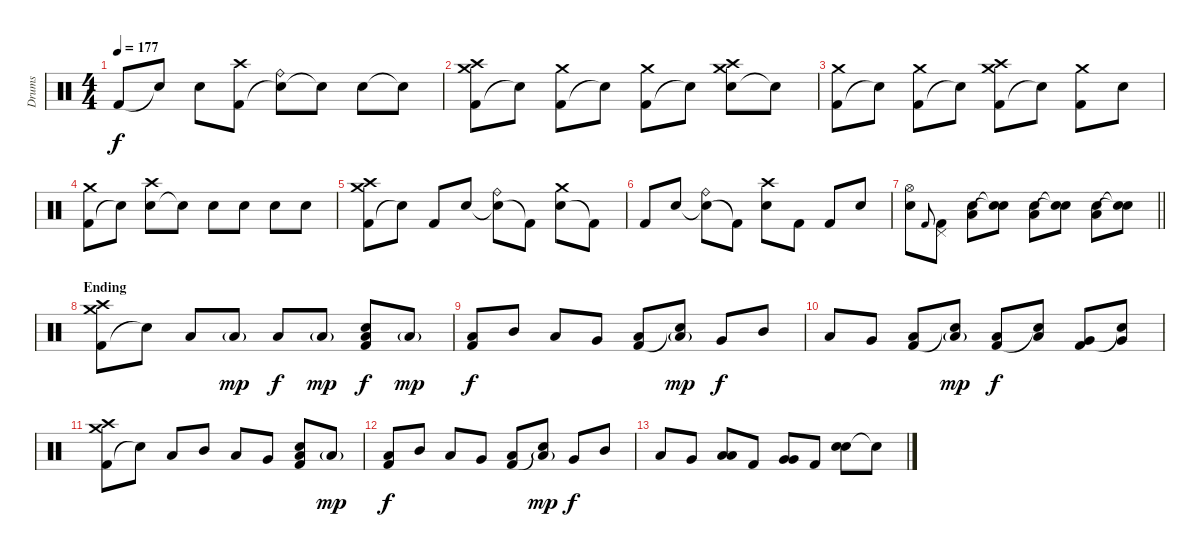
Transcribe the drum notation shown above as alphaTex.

\track ("Drums" "Drums") {instrument percussion}
\staff {score}
\articulation defaults
\ts (4 4)
\tempo 177
\clef neutral
\ks c "Kick (hit) 2"{t}.8{dy f} "Electric Snare (hit)"{t}.8 "Electric Snare (hit)".8
("Kick (hit) 2" "Crash high (hit)").8 ("Snare (hit)"{t} "Ride (bell)").8 "Snare (hit)"{t}.8 "Electric Snare (hit)".8 "Snare (hit)"{t}.8 |
("Kick (hit) 2" "Crash medium (hit)" "Crash high (hit)").8 "Snare (hit)"{t}.8 ("Kick (hit) 2" "Crash medium (hit)").8 "Snare (hit)"{t}.8 ("Kick (hit) 2" "Crash medium (hit)").8 "Snare (hit)"{t}.8 ("Electric Snare (hit)" "Crash medium (hit)" "Crash high (hit)").8 "Snare (hit)"{t}.8 |
("Kick (hit) 2" "Crash medium (hit)").8 "Snare (hit)"{t}.8 ("Kick (hit) 2" "Crash medium (hit)").8 "Snare (hit)"{t}.8 ("Kick (hit) 2" "Crash medium (hit)" "Crash high (hit)").8 "Snare (hit)"{t}.8 ("Kick (hit) 2" "Crash medium (hit)").8 "Electric Snare (hit)".8 |
("Kick (hit) 2" "Crash medium (hit)").8 "Snare (hit)"{t}.8 ("Electric Snare (hit)" "Crash high (hit)").8 "Snare (hit)"{t}.8 "Electric Snare (hit)".8 "Electric Snare (hit)".8 "Electric Snare (hit)".8 "Electric Snare (hit)".8 |
("Kick (hit) 2" "Crash medium (hit)" "Crash high (hit)").8 "Snare (hit)"{t}.8 "Kick (hit) 2".8 "Electric Snare (hit)".8 ("Snare (hit)"{t} "Ride (bell)").8 "Kick (hit) 2"{t}.8 ("Electric Snare (hit)" "Crash medium (hit)").8 "Kick (hit) 2"{t}.8 |
"Kick (hit) 2".8 "Electric Snare (hit)".8 ("Snare (hit)"{t} "Ride (bell)").8 "Kick (hit) 2"{t}.8 ("Electric Snare (hit)" "Crash high (hit)").8 "Kick (hit) 2".8 "Kick (hit) 2".8 "Electric Snare (hit)".8 |
\barLineRight lightlight
("Electric Snare (hit)" "Hi-Hat (open)").8 "Kick (hit) 2".8{gr onbeat} ("Kick (hit) 2" "Pedal Hi-Hat (hit)").8 ("Electric Snare (hit)" "Low Floor Tom (hit)").8 ("Snare (hit)"{t} "Snare (hit)"{t}).8 ("Electric Snare (hit)" "Low Floor Tom (hit)").8 ("Snare (hit)"{t} "Snare (hit)"{t}).8 ("Electric Snare (hit)" "Low Floor Tom (hit)").8 ("Snare (hit)"{t} "Snare (hit)"{t}).8 |
\section ("" "Ending")
("Kick (hit) 2" "Crash medium (hit)" "Crash high (hit)").8 "Snare (hit)"{t}.8 "Low Floor Tom (hit)".8 "Low Floor Tom (hit)"{g}.8{dy mp} "Low Floor Tom (hit)".8{dy f} "Low Floor Tom (hit)"{g}.8{dy mp} ("Low Floor Tom (hit)" "Electric Snare (hit)" "Kick (hit) 2").8{dy f} "Low Floor Tom (hit)"{g}.8{dy mp} |
("Kick (hit) 2" "Low Floor Tom (hit)").8{dy f} "Mid Tom (hit)".8 "Low Tom (hit)".8 "Very Low Tom (hit)".8 ("Kick (hit) 2" "Low Floor Tom (hit)").8 ("Snare (hit)"{t} "Low Floor Tom (hit)"{g}).8{dy mp} "Very Low Tom (hit)".8{dy f} "Mid Tom (hit)".8 |
"Low Tom (hit)".8 "Very Low Tom (hit)".8 ("Kick (hit) 2" "Low Floor Tom (hit)").8 ("Snare (hit)"{t} "Low Floor Tom (hit)"{g}).8{dy mp} ("Kick (hit) 2" "Low Tom (hit)").8{dy f} ("Snare (hit)"{t} "Low Tom (hit)").8 ("Kick (hit) 2" "Very Low Tom (hit)").8 ("Snare (hit)"{t} "Very Low Tom (hit)").8 |
("Kick (hit) 2" "Crash medium (hit)" "Crash high (hit)").8 "Snare (hit)"{t}.8 "Low Floor Tom (hit)".8 "Mid Tom (hit)".8 "Low Tom (hit)".8 "Very Low Tom (hit)".8 ("Low Floor Tom (hit)" "Electric Snare (hit)" "Kick (hit) 2").8 "Low Floor Tom (hit)"{g}.8{dy mp} |
("Kick (hit) 2" "Low Floor Tom (hit)").8{dy f} "Mid Tom (hit)".8 "Low Tom (hit)".8 "Very Low Tom (hit)".8 ("Kick (hit) 2" "Low Floor Tom (hit)").8 ("Snare (hit)"{t} "Low Floor Tom (hit)"{g}).8{dy mp} "Very Low Tom (hit)".8{dy f} "Mid Tom (hit)".8 |
"Low Tom (hit)".8 "Very Low Tom (hit)".8 ("Low Tom (hit)" "Low Tom (hit)").8 "Kick (hit) 2".8 ("Very Low Tom (hit)" "Very Low Tom (hit)").8 "Kick (hit) 2".8 ("Electric Snare (hit)" "Electric Snare (hit)").8 "Electric Snare (hit)"{t}.8
